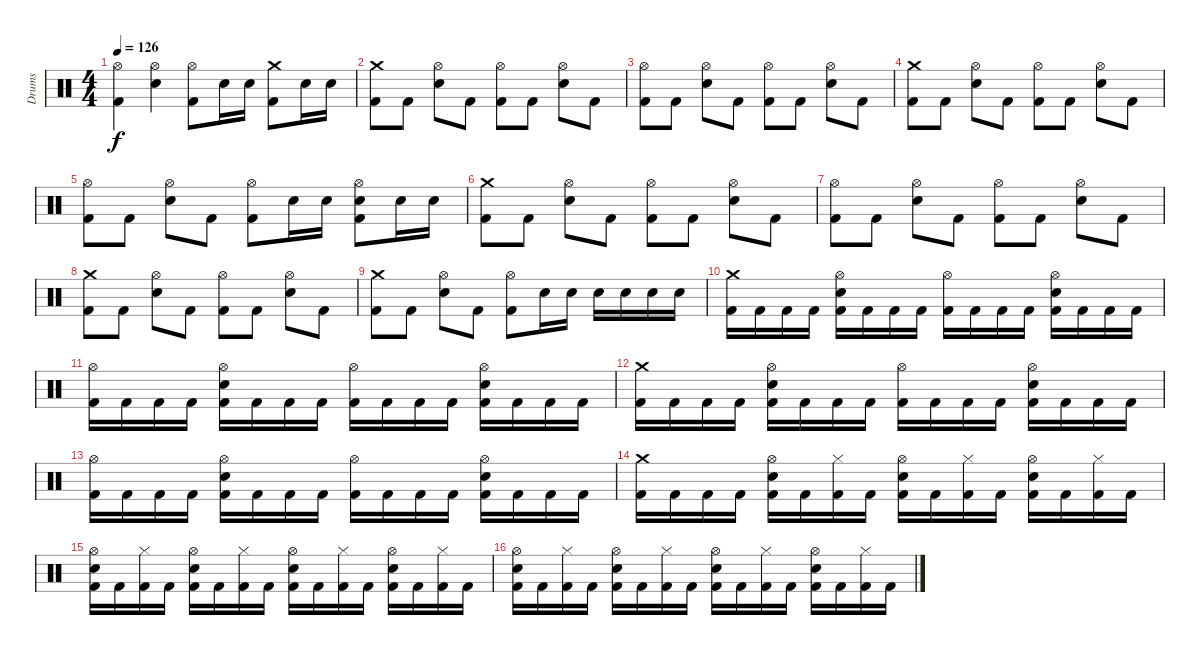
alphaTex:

\track ("Drums" "Drums") {instrument percussion}
\staff {score}
\articulation defaults
\ts (4 4)
\tempo 126
\clef neutral
\ks c
("Hi-Hat (open)" "Kick (hit) 2").4{dy f} ("Hi-Hat (open)" "Electric Snare (hit)").4 ("Hi-Hat (open)" "Kick (hit) 2").8 "Electric Snare (hit)".16 "Electric Snare (hit)".16 ("Crash medium (hit)" "Kick (hit) 2").8 "Electric Snare (hit)".16 "Electric Snare (hit)".16 |
("Crash medium (hit)" "Kick (hit) 2").8 "Kick (hit) 2".8 ("Hi-Hat (open)" "Electric Snare (hit)").8 "Kick (hit) 2".8 ("Hi-Hat (open)" "Kick (hit) 2").8 "Kick (hit) 2".8 ("Hi-Hat (open)" "Electric Snare (hit)").8 "Kick (hit) 2".8 |
("Hi-Hat (open)" "Kick (hit) 2").8 "Kick (hit) 2".8 ("Hi-Hat (open)" "Electric Snare (hit)").8 "Kick (hit) 2".8 ("Hi-Hat (open)" "Kick (hit) 2").8 "Kick (hit) 2".8 ("Hi-Hat (open)" "Electric Snare (hit)").8 "Kick (hit) 2".8 |
("Crash medium (hit)" "Kick (hit) 2").8 "Kick (hit) 2".8 ("Hi-Hat (open)" "Electric Snare (hit)").8 "Kick (hit) 2".8 ("Hi-Hat (open)" "Kick (hit) 2").8 "Kick (hit) 2".8 ("Hi-Hat (open)" "Electric Snare (hit)").8 "Kick (hit) 2".8 |
("Hi-Hat (open)" "Kick (hit) 2").8 "Kick (hit) 2".8 ("Hi-Hat (open)" "Electric Snare (hit)").8 "Kick (hit) 2".8 ("Hi-Hat (open)" "Kick (hit) 2").8 "Electric Snare (hit)".16 "Electric Snare (hit)".16 ("Hi-Hat (open)" "Electric Snare (hit)" "Kick (hit) 2").8 "Electric Snare (hit)".16 "Electric Snare (hit)".16 |
("Crash medium (hit)" "Kick (hit) 2").8 "Kick (hit) 2".8 ("Hi-Hat (open)" "Electric Snare (hit)").8 "Kick (hit) 2".8 ("Hi-Hat (open)" "Kick (hit) 2").8 "Kick (hit) 2".8 ("Hi-Hat (open)" "Electric Snare (hit)").8 "Kick (hit) 2".8 |
("Hi-Hat (open)" "Kick (hit) 2").8 "Kick (hit) 2".8 ("Hi-Hat (open)" "Electric Snare (hit)").8 "Kick (hit) 2".8 ("Hi-Hat (open)" "Kick (hit) 2").8 "Kick (hit) 2".8 ("Hi-Hat (open)" "Electric Snare (hit)").8 "Kick (hit) 2".8 |
("Crash medium (hit)" "Kick (hit) 2").8 "Kick (hit) 2".8 ("Hi-Hat (open)" "Electric Snare (hit)").8 "Kick (hit) 2".8 ("Hi-Hat (open)" "Kick (hit) 2").8 "Kick (hit) 2".8 ("Hi-Hat (open)" "Electric Snare (hit)").8 "Kick (hit) 2".8 |
("Crash medium (hit)" "Kick (hit) 2").8 "Kick (hit) 2".8 ("Hi-Hat (open)" "Electric Snare (hit)").8 "Kick (hit) 2".8 ("Hi-Hat (open)" "Kick (hit) 2").8 "Electric Snare (hit)".16 "Electric Snare (hit)".16 "Electric Snare (hit)".16 "Electric Snare (hit)".16 "Electric Snare (hit)".16 "Electric Snare (hit)".16 |
("Crash medium (hit)" "Kick (hit) 2").16 "Kick (hit) 2".16 "Kick (hit) 2".16 "Kick (hit) 2".16 ("Hi-Hat (open)" "Electric Snare (hit)" "Kick (hit) 2").16 "Kick (hit) 2".16 "Kick (hit) 2".16 "Kick (hit) 2".16 ("Hi-Hat (open)" "Kick (hit) 2").16 "Kick (hit) 2".16 "Kick (hit) 2".16 "Kick (hit) 2".16 ("Hi-Hat (open)" "Electric Snare (hit)" "Kick (hit) 2").16 "Kick (hit) 2".16 "Kick (hit) 2".16 "Kick (hit) 2".16 |
("Hi-Hat (open)" "Kick (hit) 2").16 "Kick (hit) 2".16 "Kick (hit) 2".16 "Kick (hit) 2".16 ("Hi-Hat (open)" "Electric Snare (hit)" "Kick (hit) 2").16 "Kick (hit) 2".16 "Kick (hit) 2".16 "Kick (hit) 2".16 ("Hi-Hat (open)" "Kick (hit) 2").16 "Kick (hit) 2".16 "Kick (hit) 2".16 "Kick (hit) 2".16 ("Hi-Hat (open)" "Electric Snare (hit)" "Kick (hit) 2").16 "Kick (hit) 2".16 "Kick (hit) 2".16 "Kick (hit) 2".16 |
("Crash medium (hit)" "Kick (hit) 2").16 "Kick (hit) 2".16 "Kick (hit) 2".16 "Kick (hit) 2".16 ("Hi-Hat (open)" "Electric Snare (hit)" "Kick (hit) 2").16 "Kick (hit) 2".16 "Kick (hit) 2".16 "Kick (hit) 2".16 ("Hi-Hat (open)" "Kick (hit) 2").16 "Kick (hit) 2".16 "Kick (hit) 2".16 "Kick (hit) 2".16 ("Hi-Hat (open)" "Electric Snare (hit)" "Kick (hit) 2").16 "Kick (hit) 2".16 "Kick (hit) 2".16 "Kick (hit) 2".16 |
("Hi-Hat (open)" "Kick (hit) 2").16 "Kick (hit) 2".16 "Kick (hit) 2".16 "Kick (hit) 2".16 ("Hi-Hat (open)" "Electric Snare (hit)" "Kick (hit) 2").16 "Kick (hit) 2".16 "Kick (hit) 2".16 "Kick (hit) 2".16 ("Hi-Hat (open)" "Kick (hit) 2").16 "Kick (hit) 2".16 "Kick (hit) 2".16 "Kick (hit) 2".16 ("Hi-Hat (open)" "Electric Snare (hit)" "Kick (hit) 2").16 "Kick (hit) 2".16 "Kick (hit) 2".16 "Kick (hit) 2".16 |
("Crash medium (hit)" "Kick (hit) 2").16 "Kick (hit) 2".16 "Kick (hit) 2".16 "Kick (hit) 2".16 ("Hi-Hat (open)" "Electric Snare (hit)" "Kick (hit) 2").16 "Kick (hit) 2".16 ("Hi-Hat (closed)" "Kick (hit) 2").16 "Kick (hit) 2".16 ("Hi-Hat (open)" "Electric Snare (hit)" "Kick (hit) 2").16 "Kick (hit) 2".16 ("Hi-Hat (closed)" "Kick (hit) 2").16 "Kick (hit) 2".16 ("Hi-Hat (open)" "Electric Snare (hit)" "Kick (hit) 2").16 "Kick (hit) 2".16 ("Hi-Hat (closed)" "Kick (hit) 2").16 "Kick (hit) 2".16 |
("Hi-Hat (open)" "Electric Snare (hit)" "Kick (hit) 2").16 "Kick (hit) 2".16 ("Hi-Hat (closed)" "Kick (hit) 2").16 "Kick (hit) 2".16 ("Hi-Hat (open)" "Electric Snare (hit)" "Kick (hit) 2").16 "Kick (hit) 2".16 ("Hi-Hat (closed)" "Kick (hit) 2").16 "Kick (hit) 2".16 ("Hi-Hat (open)" "Electric Snare (hit)" "Kick (hit) 2").16 "Kick (hit) 2".16 ("Hi-Hat (closed)" "Kick (hit) 2").16 "Kick (hit) 2".16 ("Hi-Hat (open)" "Electric Snare (hit)" "Kick (hit) 2").16 "Kick (hit) 2".16 ("Hi-Hat (closed)" "Kick (hit) 2").16 "Kick (hit) 2".16 |
("Hi-Hat (open)" "Electric Snare (hit)" "Kick (hit) 2").16 "Kick (hit) 2".16 ("Hi-Hat (closed)" "Kick (hit) 2").16 "Kick (hit) 2".16 ("Hi-Hat (open)" "Electric Snare (hit)" "Kick (hit) 2").16 "Kick (hit) 2".16 ("Hi-Hat (closed)" "Kick (hit) 2").16 "Kick (hit) 2".16 ("Hi-Hat (open)" "Electric Snare (hit)" "Kick (hit) 2").16 "Kick (hit) 2".16 ("Hi-Hat (closed)" "Kick (hit) 2").16 "Kick (hit) 2".16 ("Hi-Hat (open)" "Electric Snare (hit)" "Kick (hit) 2").16 "Kick (hit) 2".16 ("Hi-Hat (closed)" "Kick (hit) 2").16 "Kick (hit) 2".16
